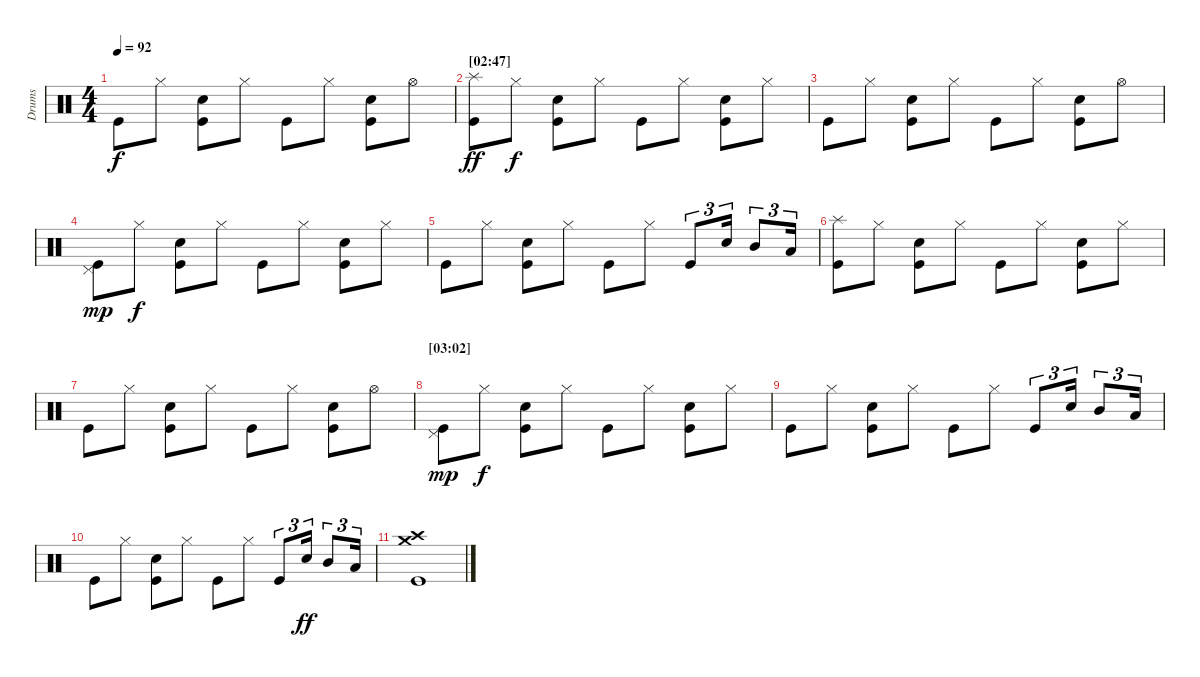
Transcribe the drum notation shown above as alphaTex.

\track ("Drums" "Drums") {instrument percussion}
\staff {score}
\articulation defaults
\ts (4 4)
\tempo 92
\clef neutral
\ks c "Kick (hit)".8{dy f} "Hi-Hat (closed)".8
("Electric Snare (hit)" "Kick (hit)").8 "Hi-Hat (closed)".8 "Kick (hit)".8 "Hi-Hat (closed)".8 ("Electric Snare (hit)" "Kick (hit)").8 "Hi-Hat (open)".8 |
\section ("" "[02:47]")
("Splash (hit)" "Kick (hit)").8{dy ff} "Hi-Hat (closed)".8{dy f} ("Electric Snare (hit)" "Kick (hit)").8 "Hi-Hat (closed)".8 "Kick (hit)".8 "Hi-Hat (closed)".8 ("Electric Snare (hit)" "Kick (hit)").8 "Hi-Hat (closed)".8 |
"Kick (hit)".8 "Hi-Hat (closed)".8 ("Electric Snare (hit)" "Kick (hit)").8 "Hi-Hat (closed)".8 "Kick (hit)".8 "Hi-Hat (closed)".8 ("Electric Snare (hit)" "Kick (hit)").8 "Hi-Hat (open)".8 |
("Pedal Hi-Hat (hit)" "Kick (hit)").8{dy mp} "Hi-Hat (closed)".8{dy f} ("Electric Snare (hit)" "Kick (hit)").8 "Hi-Hat (closed)".8 "Kick (hit)".8 "Hi-Hat (closed)".8 ("Electric Snare (hit)" "Kick (hit)").8 "Hi-Hat (closed)".8 |
"Kick (hit)".8 "Hi-Hat (closed)".8 ("Electric Snare (hit)" "Kick (hit)").8 "Hi-Hat (closed)".8 "Kick (hit)".8 "Hi-Hat (closed)".8 "Kick (hit)".8{tu (3 2)} "Electric Snare (hit)".16{tu (3 2)} "Mid Tom (hit)".8{tu (3 2)} "Low Tom (hit)".16{tu (3 2)} |
("Splash (hit)" "Kick (hit)").8 "Hi-Hat (closed)".8 ("Electric Snare (hit)" "Kick (hit)").8 "Hi-Hat (closed)".8 "Kick (hit)".8 "Hi-Hat (closed)".8 ("Electric Snare (hit)" "Kick (hit)").8 "Hi-Hat (closed)".8 |
"Kick (hit)".8 "Hi-Hat (closed)".8 ("Electric Snare (hit)" "Kick (hit)").8 "Hi-Hat (closed)".8 "Kick (hit)".8 "Hi-Hat (closed)".8 ("Electric Snare (hit)" "Kick (hit)").8 "Hi-Hat (open)".8 |
\section ("" "[03:02]")
("Pedal Hi-Hat (hit)" "Kick (hit)").8{dy mp} "Hi-Hat (closed)".8{dy f} ("Electric Snare (hit)" "Kick (hit)").8 "Hi-Hat (closed)".8 "Kick (hit)".8 "Hi-Hat (closed)".8 ("Electric Snare (hit)" "Kick (hit)").8 "Hi-Hat (closed)".8 |
"Kick (hit)".8 "Hi-Hat (closed)".8 ("Electric Snare (hit)" "Kick (hit)").8 "Hi-Hat (closed)".8 "Kick (hit)".8 "Hi-Hat (closed)".8 "Kick (hit)".8{tu (3 2)} "Electric Snare (hit)".16{tu (3 2)} "Mid Tom (hit)".8{tu (3 2)} "Low Tom (hit)".16{tu (3 2)} |
"Kick (hit)".8 "Hi-Hat (closed)".8 ("Electric Snare (hit)" "Kick (hit)").8 "Hi-Hat (closed)".8 "Kick (hit)".8 "Hi-Hat (closed)".8 "Kick (hit)".8{tu (3 2)} "Electric Snare (hit)".16{tu (3 2) dy ff} "Mid Tom (hit)".8{tu (3 2)} "Low Tom (hit)".16{tu (3 2)} |
\section ("" "")
("Crash medium (hit)" "Crash high (hit)" "Kick (hit)").1
